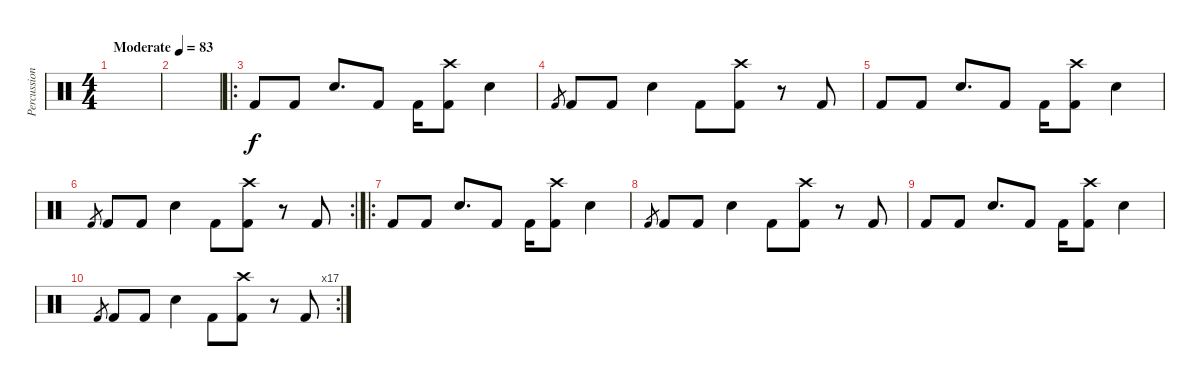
\track ("Percussion" "Percussion") {instrument percussion}
\staff {score}
\articulation defaults
\ts (4 4)
\tempo (83 "Moderate")
\clef neutral
\ks c
|
|
\ro "Kick (hit) 2".8 "Kick (hit) 2".8 "Snare (hit) 2".8{d} "Kick (hit) 2".8 "Kick (hit) 2".16
("Kick (hit) 2" "Crash high (hit)").8 "Snare (hit) 2".4 |
"Kick (hit) 2".8{gr} "Kick (hit) 2".8 "Kick (hit) 2".8 "Snare (hit) 2".4 "Kick (hit) 2".8 ("Kick (hit) 2" "Crash high (hit)").8 r.8 "Kick (hit) 2".8 |
"Kick (hit) 2".8 "Kick (hit) 2".8 "Snare (hit) 2".8{d} "Kick (hit) 2".8 "Kick (hit) 2".16 ("Kick (hit) 2" "Crash high (hit)").8 "Snare (hit) 2".4 |
\rc 2 "Kick (hit) 2".8{gr} "Kick (hit) 2".8 "Kick (hit) 2".8 "Snare (hit) 2".4 "Kick (hit) 2".8
("Kick (hit) 2" "Crash high (hit)").8 r.8 "Kick (hit) 2".8 |
\ro "Kick (hit) 2".8 "Kick (hit) 2".8 "Snare (hit) 2".8{d} "Kick (hit) 2".8 "Kick (hit) 2".16
("Kick (hit) 2" "Crash high (hit)").8 "Snare (hit) 2".4 |
"Kick (hit) 2".8{gr} "Kick (hit) 2".8 "Kick (hit) 2".8 "Snare (hit) 2".4 "Kick (hit) 2".8 ("Kick (hit) 2" "Crash high (hit)").8 r.8 "Kick (hit) 2".8 |
"Kick (hit) 2".8 "Kick (hit) 2".8 "Snare (hit) 2".8{d} "Kick (hit) 2".8 "Kick (hit) 2".16 ("Kick (hit) 2" "Crash high (hit)").8 "Snare (hit) 2".4 |
\rc 17 "Kick (hit) 2".8{gr} "Kick (hit) 2".8 "Kick (hit) 2".8 "Snare (hit) 2".4 "Kick (hit) 2".8
("Kick (hit) 2" "Crash high (hit)").8 r.8 "Kick (hit) 2".8
